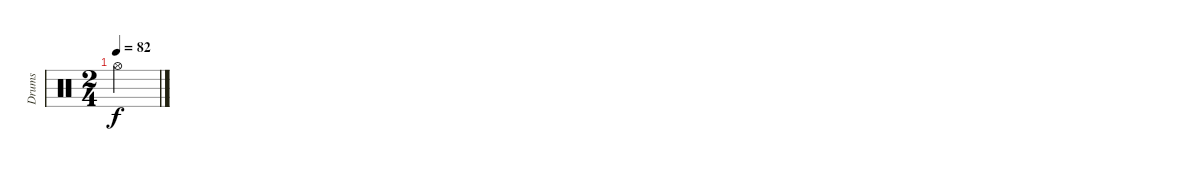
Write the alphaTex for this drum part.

\track ("Drums" "Drums") {instrument percussion}
\staff {score}
\articulation defaults
\ts (2 4)
\tempo 82
\clef neutral
\ks c "Hi-Hat (open)".2{dy f}
